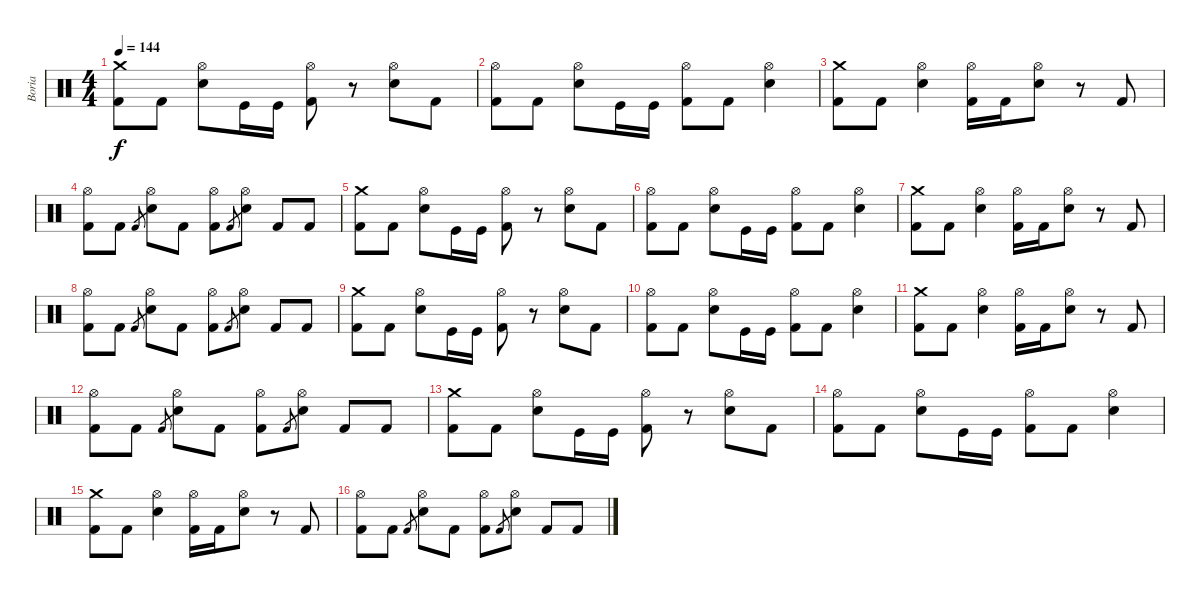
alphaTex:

\track ("Boria" "Boria") {instrument percussion}
\staff {score}
\articulation defaults
\ts (4 4)
\tempo 144
\clef neutral
\ks c
("Kick (hit) 2" "Crash medium (hit)").8{dy f} "Kick (hit) 2".8 ("Hi-Hat (open)" "Electric Snare (hit)").8 "Kick (hit)".16 "Kick (hit)".16 ("Hi-Hat (open)" "Kick (hit) 2").8 r.8 ("Hi-Hat (open)" "Electric Snare (hit)").8 "Kick (hit) 2".8 |
("Kick (hit) 2" "Hi-Hat (open)").8 "Kick (hit) 2".8 ("Hi-Hat (open)" "Electric Snare (hit)").8 "Kick (hit)".16 "Kick (hit)".16 ("Hi-Hat (open)" "Kick (hit) 2").8 "Kick (hit) 2".8 ("Hi-Hat (open)" "Electric Snare (hit)").4 |
("Kick (hit) 2" "Crash medium (hit)").8 "Kick (hit) 2".8 ("Hi-Hat (open)" "Electric Snare (hit)").4 ("Hi-Hat (open)" "Kick (hit) 2").16 "Kick (hit) 2".16 ("Hi-Hat (open)" "Electric Snare (hit)").8 r.8 "Kick (hit) 2".8 |
("Kick (hit) 2" "Hi-Hat (open)").8 "Kick (hit) 2".8 "Kick (hit) 2".8{gr} ("Hi-Hat (open)" "Snare (hit) 2").8 "Kick (hit) 2".8 ("Hi-Hat (open)" "Kick (hit) 2").8 "Kick (hit) 2".8{gr} ("Hi-Hat (open)" "Snare (hit) 2").8 "Kick (hit) 2".8 "Kick (hit) 2".8 |
("Kick (hit) 2" "Crash medium (hit)").8 "Kick (hit) 2".8 ("Hi-Hat (open)" "Electric Snare (hit)").8 "Kick (hit)".16 "Kick (hit)".16 ("Hi-Hat (open)" "Kick (hit) 2").8 r.8 ("Hi-Hat (open)" "Electric Snare (hit)").8 "Kick (hit) 2".8 |
("Kick (hit) 2" "Hi-Hat (open)").8 "Kick (hit) 2".8 ("Hi-Hat (open)" "Electric Snare (hit)").8 "Kick (hit)".16 "Kick (hit)".16 ("Hi-Hat (open)" "Kick (hit) 2").8 "Kick (hit) 2".8 ("Hi-Hat (open)" "Electric Snare (hit)").4 |
("Kick (hit) 2" "Crash medium (hit)").8 "Kick (hit) 2".8 ("Hi-Hat (open)" "Electric Snare (hit)").4 ("Hi-Hat (open)" "Kick (hit) 2").16 "Kick (hit) 2".16 ("Hi-Hat (open)" "Electric Snare (hit)").8 r.8 "Kick (hit) 2".8 |
("Kick (hit) 2" "Hi-Hat (open)").8 "Kick (hit) 2".8 "Kick (hit) 2".8{gr} ("Hi-Hat (open)" "Snare (hit) 2").8 "Kick (hit) 2".8 ("Hi-Hat (open)" "Kick (hit) 2").8 "Kick (hit) 2".8{gr} ("Hi-Hat (open)" "Snare (hit) 2").8 "Kick (hit) 2".8 "Kick (hit) 2".8 |
("Kick (hit) 2" "Crash medium (hit)").8 "Kick (hit) 2".8 ("Hi-Hat (open)" "Electric Snare (hit)").8 "Kick (hit)".16 "Kick (hit)".16 ("Hi-Hat (open)" "Kick (hit) 2").8 r.8 ("Hi-Hat (open)" "Electric Snare (hit)").8 "Kick (hit) 2".8 |
("Kick (hit) 2" "Hi-Hat (open)").8 "Kick (hit) 2".8 ("Hi-Hat (open)" "Electric Snare (hit)").8 "Kick (hit)".16 "Kick (hit)".16 ("Hi-Hat (open)" "Kick (hit) 2").8 "Kick (hit) 2".8 ("Hi-Hat (open)" "Electric Snare (hit)").4 |
("Kick (hit) 2" "Crash medium (hit)").8 "Kick (hit) 2".8 ("Hi-Hat (open)" "Electric Snare (hit)").4 ("Hi-Hat (open)" "Kick (hit) 2").16 "Kick (hit) 2".16 ("Hi-Hat (open)" "Electric Snare (hit)").8 r.8 "Kick (hit) 2".8 |
("Kick (hit) 2" "Hi-Hat (open)").8 "Kick (hit) 2".8 "Kick (hit) 2".8{gr} ("Hi-Hat (open)" "Snare (hit) 2").8 "Kick (hit) 2".8 ("Hi-Hat (open)" "Kick (hit) 2").8 "Kick (hit) 2".8{gr} ("Hi-Hat (open)" "Snare (hit) 2").8 "Kick (hit) 2".8 "Kick (hit) 2".8 |
("Kick (hit) 2" "Crash medium (hit)").8 "Kick (hit) 2".8 ("Hi-Hat (open)" "Electric Snare (hit)").8 "Kick (hit)".16 "Kick (hit)".16 ("Hi-Hat (open)" "Kick (hit) 2").8 r.8 ("Hi-Hat (open)" "Electric Snare (hit)").8 "Kick (hit) 2".8 |
("Kick (hit) 2" "Hi-Hat (open)").8 "Kick (hit) 2".8 ("Hi-Hat (open)" "Electric Snare (hit)").8 "Kick (hit)".16 "Kick (hit)".16 ("Hi-Hat (open)" "Kick (hit) 2").8 "Kick (hit) 2".8 ("Hi-Hat (open)" "Electric Snare (hit)").4 |
("Kick (hit) 2" "Crash medium (hit)").8 "Kick (hit) 2".8 ("Hi-Hat (open)" "Electric Snare (hit)").4 ("Hi-Hat (open)" "Kick (hit) 2").16 "Kick (hit) 2".16 ("Hi-Hat (open)" "Electric Snare (hit)").8 r.8 "Kick (hit) 2".8 |
("Kick (hit) 2" "Hi-Hat (open)").8 "Kick (hit) 2".8 "Kick (hit) 2".8{gr} ("Hi-Hat (open)" "Snare (hit) 2").8 "Kick (hit) 2".8 ("Hi-Hat (open)" "Kick (hit) 2").8 "Kick (hit) 2".8{gr} ("Hi-Hat (open)" "Snare (hit) 2").8 "Kick (hit) 2".8 "Kick (hit) 2".8
